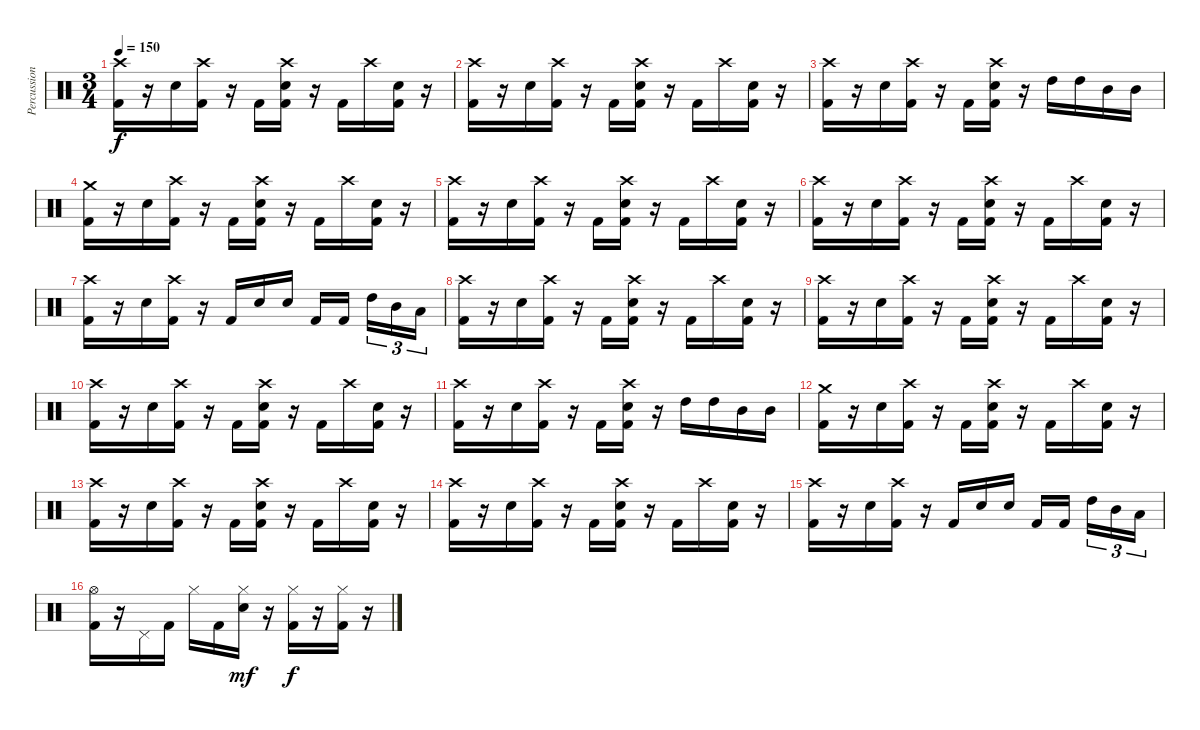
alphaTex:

\track ("Percussion" "Percussion") {instrument percussion}
\staff {score}
\articulation defaults
\ts (3 4)
\tempo 150
\clef neutral
\ks c
("Crash high (hit)" "Kick (hit) 2").16{dy f} r.16 "Electric Snare (hit)".16 ("Crash high (hit)" "Kick (hit) 2").16 r.16 "Kick (hit) 2".16 ("Crash high (hit)" "Electric Snare (hit)" "Kick (hit) 2").16 r.16 "Kick (hit) 2".16 "Crash high (hit)".16 ("Electric Snare (hit)" "Kick (hit) 2").16 r.16 |
("Crash high (hit)" "Kick (hit) 2").16 r.16 "Electric Snare (hit)".16 ("Crash high (hit)" "Kick (hit) 2").16 r.16 "Kick (hit) 2".16 ("Crash high (hit)" "Electric Snare (hit)" "Kick (hit) 2").16 r.16 "Kick (hit) 2".16 "Crash high (hit)".16 ("Electric Snare (hit)" "Kick (hit) 2").16 r.16 |
("Crash high (hit)" "Kick (hit) 2").16 r.16 "Electric Snare (hit)".16 ("Crash high (hit)" "Kick (hit) 2").16 r.16 "Kick (hit) 2".16 ("Crash high (hit)" "Electric Snare (hit)" "Kick (hit) 2").16 r.16 "High Tom (hit)".16 "High Tom (hit)".16 "Mid Tom (hit)".16 "Mid Tom (hit)".16 |
("Crash medium (hit)" "Kick (hit) 2").16 r.16 "Electric Snare (hit)".16 ("Crash high (hit)" "Kick (hit) 2").16 r.16 "Kick (hit) 2".16 ("Crash high (hit)" "Electric Snare (hit)" "Kick (hit) 2").16 r.16 "Kick (hit) 2".16 "Crash high (hit)".16 ("Electric Snare (hit)" "Kick (hit) 2").16 r.16 |
("Crash high (hit)" "Kick (hit) 2").16 r.16 "Electric Snare (hit)".16 ("Crash high (hit)" "Kick (hit) 2").16 r.16 "Kick (hit) 2".16 ("Crash high (hit)" "Electric Snare (hit)" "Kick (hit) 2").16 r.16 "Kick (hit) 2".16 "Crash high (hit)".16 ("Electric Snare (hit)" "Kick (hit) 2").16 r.16 |
("Crash high (hit)" "Kick (hit) 2").16 r.16 "Electric Snare (hit)".16 ("Crash high (hit)" "Kick (hit) 2").16 r.16 "Kick (hit) 2".16 ("Crash high (hit)" "Electric Snare (hit)" "Kick (hit) 2").16 r.16 "Kick (hit) 2".16 "Crash high (hit)".16 ("Electric Snare (hit)" "Kick (hit) 2").16 r.16 |
("Crash high (hit)" "Kick (hit) 2").16 r.16 "Electric Snare (hit)".16 ("Crash high (hit)" "Kick (hit) 2").16 r.16 "Kick (hit) 2".16 "Electric Snare (hit)".16 "Electric Snare (hit)".16 "Kick (hit) 2".16 "Kick (hit) 2".16{beam splitsecondary} "High Tom (hit)".16{tu (3 2)} "Mid Tom (hit)".16{tu (3 2)} "Low Tom (hit)".16{tu (3 2)} |
("Crash high (hit)" "Kick (hit) 2").16 r.16 "Electric Snare (hit)".16 ("Crash high (hit)" "Kick (hit) 2").16 r.16 "Kick (hit) 2".16 ("Crash high (hit)" "Electric Snare (hit)" "Kick (hit) 2").16 r.16 "Kick (hit) 2".16 "Crash high (hit)".16 ("Electric Snare (hit)" "Kick (hit) 2").16 r.16 |
("Crash high (hit)" "Kick (hit) 2").16 r.16 "Electric Snare (hit)".16 ("Crash high (hit)" "Kick (hit) 2").16 r.16 "Kick (hit) 2".16 ("Crash high (hit)" "Electric Snare (hit)" "Kick (hit) 2").16 r.16 "Kick (hit) 2".16 "Crash high (hit)".16 ("Electric Snare (hit)" "Kick (hit) 2").16 r.16 |
("Crash high (hit)" "Kick (hit) 2").16 r.16 "Electric Snare (hit)".16 ("Crash high (hit)" "Kick (hit) 2").16 r.16 "Kick (hit) 2".16 ("Crash high (hit)" "Electric Snare (hit)" "Kick (hit) 2").16 r.16 "Kick (hit) 2".16 "Crash high (hit)".16 ("Electric Snare (hit)" "Kick (hit) 2").16 r.16 |
("Crash high (hit)" "Kick (hit) 2").16 r.16 "Electric Snare (hit)".16 ("Crash high (hit)" "Kick (hit) 2").16 r.16 "Kick (hit) 2".16 ("Crash high (hit)" "Electric Snare (hit)" "Kick (hit) 2").16 r.16 "High Tom (hit)".16 "High Tom (hit)".16 "Mid Tom (hit)".16 "Mid Tom (hit)".16 |
("Crash medium (hit)" "Kick (hit) 2").16 r.16 "Electric Snare (hit)".16 ("Crash high (hit)" "Kick (hit) 2").16 r.16 "Kick (hit) 2".16 ("Crash high (hit)" "Electric Snare (hit)" "Kick (hit) 2").16 r.16 "Kick (hit) 2".16 "Crash high (hit)".16 ("Electric Snare (hit)" "Kick (hit) 2").16 r.16 |
("Crash high (hit)" "Kick (hit) 2").16 r.16 "Electric Snare (hit)".16 ("Crash high (hit)" "Kick (hit) 2").16 r.16 "Kick (hit) 2".16 ("Crash high (hit)" "Electric Snare (hit)" "Kick (hit) 2").16 r.16 "Kick (hit) 2".16 "Crash high (hit)".16 ("Electric Snare (hit)" "Kick (hit) 2").16 r.16 |
("Crash high (hit)" "Kick (hit) 2").16 r.16 "Electric Snare (hit)".16 ("Crash high (hit)" "Kick (hit) 2").16 r.16 "Kick (hit) 2".16 ("Crash high (hit)" "Electric Snare (hit)" "Kick (hit) 2").16 r.16 "Kick (hit) 2".16 "Crash high (hit)".16 ("Electric Snare (hit)" "Kick (hit) 2").16 r.16 |
("Crash high (hit)" "Kick (hit) 2").16 r.16 "Electric Snare (hit)".16 ("Crash high (hit)" "Kick (hit) 2").16 r.16 "Kick (hit) 2".16 "Electric Snare (hit)".16 "Electric Snare (hit)".16 "Kick (hit) 2".16 "Kick (hit) 2".16{beam splitsecondary} "High Tom (hit)".16{tu (3 2)} "Mid Tom (hit)".16{tu (3 2)} "Low Tom (hit)".16{tu (3 2)} |
("Hi-Hat (open)" "Kick (hit) 2").16 r.16 "Pedal Hi-Hat (hit)".16 "Kick (hit) 2".16 "Hi-Hat (closed)".16 "Kick (hit) 2".16 ("Hi-Hat (closed)" "Electric Snare (hit)").16{dy mf} r.16 ("Hi-Hat (closed)" "Kick (hit) 2").16{dy f} r.16 ("Hi-Hat (closed)" "Kick (hit) 2").16 r.16
